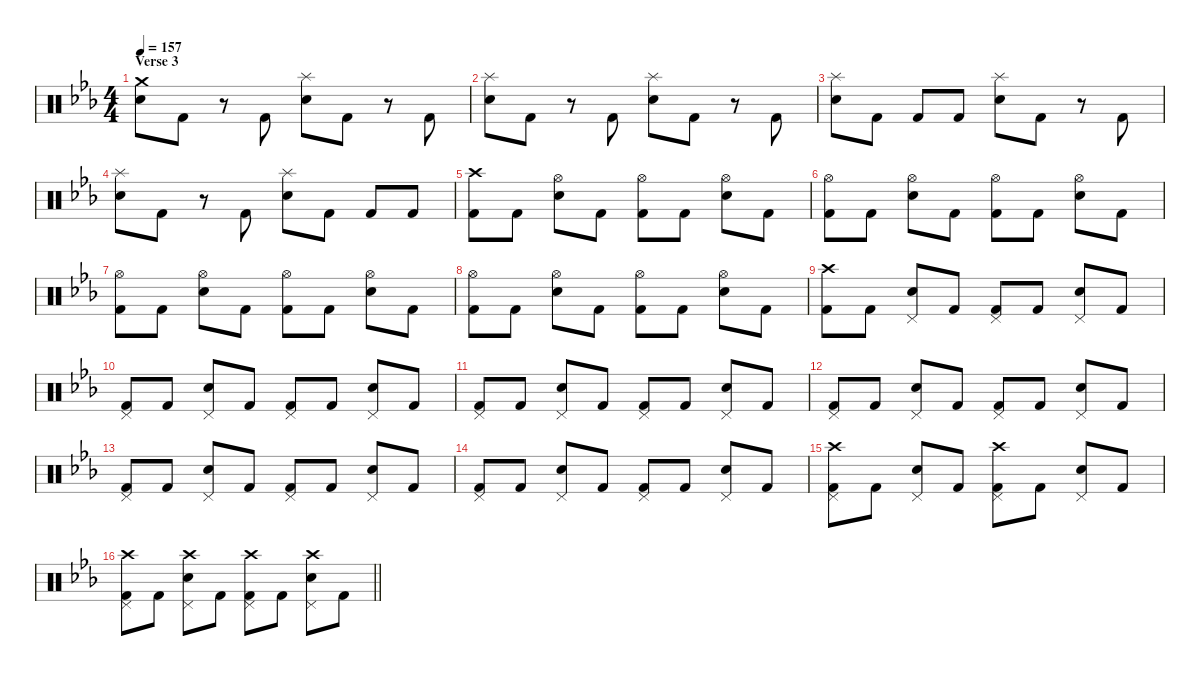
\defaultSystemsLayout 4
\hideDynamics
\bracketExtendMode nobrackets
\singleTrackTrackNamePolicy hidden
\multiTrackTrackNamePolicy hidden
\firstSystemTrackNameMode fullname
\firstSystemTrackNameOrientation horizontal
\otherSystemsTrackNameOrientation horizontal
\track ("Drums" "drm.") {instrument percussion}
\staff {score}
\articulation defaults
\ts (4 4)
\section ("" "Verse 3")
\tempo 157
\clef neutral
\ks cminor
("Crash medium (hit)"{acc forcenatural} "Snare (hit) 2"{acc forcenatural}).8{dy f beam Down} "Kick (hit) 2"{acc forcenatural}.8{beam Down} r.8{beam Down} "Kick (hit) 2"{acc forcenatural}.8{beam Up} ("Splash (hit)"{acc forcenatural} "Snare (hit) 2"{acc forcenatural}).8{dy fff beam Down} "Kick (hit) 2"{acc forcenatural}.8{dy f beam Down} r.8{beam Down} "Kick (hit) 2"{acc forcenatural}.8{beam Up} |
("Splash (hit)"{acc forcenatural} "Snare (hit) 2"{acc forcenatural}).8{dy fff beam Down} "Kick (hit) 2"{acc forcenatural}.8{dy f beam Down} r.8{beam Down} "Kick (hit) 2"{acc forcenatural}.8{beam Up} ("Splash (hit)"{acc forcenatural} "Snare (hit) 2"{acc forcenatural}).8{dy fff beam Down} "Kick (hit) 2"{acc forcenatural}.8{dy f beam Down} r.8{beam Down} "Kick (hit) 2"{acc forcenatural}.8{beam Up} |
("Splash (hit)"{acc forcenatural} "Snare (hit) 2"{acc forcenatural}).8{dy fff beam Down} "Kick (hit) 2"{acc forcenatural}.8{dy f beam Down} "Kick (hit) 2"{acc forcenatural}.8{beam Up} "Kick (hit) 2"{acc forcenatural}.8{beam Up} ("Splash (hit)"{acc forcenatural} "Snare (hit) 2"{acc forcenatural}).8{dy fff beam Down} "Kick (hit) 2"{acc forcenatural}.8{dy f beam Down} r.8{beam Down} "Kick (hit) 2"{acc forcenatural}.8{beam Up} |
("Splash (hit)"{acc forcenatural} "Snare (hit) 2"{acc forcenatural}).8{dy fff beam Down} "Kick (hit) 2"{acc forcenatural}.8{dy f beam Down} r.8{beam Down} "Kick (hit) 2"{acc forcenatural}.8{beam Up} ("Splash (hit)"{acc forcenatural} "Snare (hit) 2"{acc forcenatural}).8{dy fff beam Down} "Kick (hit) 2"{acc forcenatural}.8{dy f beam Down} "Kick (hit) 2"{acc forcenatural}.8{beam Up} "Kick (hit) 2"{acc forcenatural}.8{beam Up} |
("Crash high (hit)"{acc forcenatural} "Kick (hit) 2"{acc forcenatural}).8{beam Down} "Kick (hit) 2"{acc forcenatural}.8{beam Down} ("Hi-Hat (open)"{acc forcenatural} "Snare (hit) 2"{acc forcenatural}).8{beam Down} "Kick (hit) 2"{acc forcenatural}.8{beam Down} ("Hi-Hat (open)"{acc forcenatural} "Kick (hit) 2"{acc forcenatural}).8{beam Down} "Kick (hit) 2"{acc forcenatural}.8{beam Down} ("Hi-Hat (open)"{acc forcenatural} "Snare (hit) 2"{acc forcenatural}).8{beam Down} "Kick (hit) 2"{acc forcenatural}.8{beam Down} |
("Hi-Hat (open)"{acc forcenatural} "Kick (hit) 2"{acc forcenatural}).8{beam Down} "Kick (hit) 2"{acc forcenatural}.8{beam Down} ("Hi-Hat (open)"{acc forcenatural} "Snare (hit) 2"{acc forcenatural}).8{beam Down} "Kick (hit) 2"{acc forcenatural}.8{beam Down} ("Hi-Hat (open)"{acc forcenatural} "Kick (hit) 2"{acc forcenatural}).8{beam Down} "Kick (hit) 2"{acc forcenatural}.8{beam Down} ("Hi-Hat (open)"{acc forcenatural} "Snare (hit) 2"{acc forcenatural}).8{beam Down} "Kick (hit) 2"{acc forcenatural}.8{beam Down} |
("Hi-Hat (open)"{acc forcenatural} "Kick (hit) 2"{acc forcenatural}).8{beam Down} "Kick (hit) 2"{acc forcenatural}.8{beam Down} ("Hi-Hat (open)"{acc forcenatural} "Snare (hit) 2"{acc forcenatural}).8{beam Down} "Kick (hit) 2"{acc forcenatural}.8{beam Down} ("Hi-Hat (open)"{acc forcenatural} "Kick (hit) 2"{acc forcenatural}).8{beam Down} "Kick (hit) 2"{acc forcenatural}.8{beam Down} ("Hi-Hat (open)"{acc forcenatural} "Snare (hit) 2"{acc forcenatural}).8{beam Down} "Kick (hit) 2"{acc forcenatural}.8{beam Down} |
("Hi-Hat (open)"{acc forcenatural} "Kick (hit) 2"{acc forcenatural}).8{beam Down} "Kick (hit) 2"{acc forcenatural}.8{beam Down} ("Hi-Hat (open)"{acc forcenatural} "Snare (hit) 2"{acc forcenatural}).8{beam Down} "Kick (hit) 2"{acc forcenatural}.8{beam Down} ("Hi-Hat (open)"{acc forcenatural} "Kick (hit) 2"{acc forcenatural}).8{beam Down} "Kick (hit) 2"{acc forcenatural}.8{beam Down} ("Hi-Hat (open)"{acc forcenatural} "Snare (hit) 2"{acc forcenatural}).8{beam Down} "Kick (hit) 2"{acc forcenatural}.8{beam Down} |
("Crash high (hit)"{acc forcenatural} "Kick (hit) 2"{acc forcenatural}).8{beam Down} "Kick (hit) 2"{acc forcenatural}.8{beam Down} ("Pedal Hi-Hat (hit)"{acc forcenatural} "Snare (hit) 2"{acc forcenatural}).8{beam Up} "Kick (hit) 2"{acc forcenatural}.8{beam Up} ("Pedal Hi-Hat (hit)"{acc forcenatural} "Kick (hit) 2"{acc forcenatural}).8{beam Up} "Kick (hit) 2"{acc forcenatural}.8{beam Up} ("Pedal Hi-Hat (hit)"{acc forcenatural} "Snare (hit) 2"{acc forcenatural}).8{beam Up} "Kick (hit) 2"{acc forcenatural}.8{beam Up} |
("Pedal Hi-Hat (hit)"{acc forcenatural} "Kick (hit) 2"{acc forcenatural}).8{beam Up} "Kick (hit) 2"{acc forcenatural}.8{beam Up} ("Pedal Hi-Hat (hit)"{acc forcenatural} "Snare (hit) 2"{acc forcenatural}).8{beam Up} "Kick (hit) 2"{acc forcenatural}.8{beam Up} ("Pedal Hi-Hat (hit)"{acc forcenatural} "Kick (hit) 2"{acc forcenatural}).8{beam Up} "Kick (hit) 2"{acc forcenatural}.8{beam Up} ("Pedal Hi-Hat (hit)"{acc forcenatural} "Snare (hit) 2"{acc forcenatural}).8{beam Up} "Kick (hit) 2"{acc forcenatural}.8{beam Up} |
("Pedal Hi-Hat (hit)"{acc forcenatural} "Kick (hit) 2"{acc forcenatural}).8{beam Up} "Kick (hit) 2"{acc forcenatural}.8{beam Up} ("Pedal Hi-Hat (hit)"{acc forcenatural} "Snare (hit) 2"{acc forcenatural}).8{beam Up} "Kick (hit) 2"{acc forcenatural}.8{beam Up} ("Pedal Hi-Hat (hit)"{acc forcenatural} "Kick (hit) 2"{acc forcenatural}).8{beam Up} "Kick (hit) 2"{acc forcenatural}.8{beam Up} ("Pedal Hi-Hat (hit)"{acc forcenatural} "Snare (hit) 2"{acc forcenatural}).8{beam Up} "Kick (hit) 2"{acc forcenatural}.8{beam Up} |
("Pedal Hi-Hat (hit)"{acc forcenatural} "Kick (hit) 2"{acc forcenatural}).8{beam Up} "Kick (hit) 2"{acc forcenatural}.8{beam Up} ("Pedal Hi-Hat (hit)"{acc forcenatural} "Snare (hit) 2"{acc forcenatural}).8{beam Up} "Kick (hit) 2"{acc forcenatural}.8{beam Up} ("Pedal Hi-Hat (hit)"{acc forcenatural} "Kick (hit) 2"{acc forcenatural}).8{beam Up} "Kick (hit) 2"{acc forcenatural}.8{beam Up} ("Pedal Hi-Hat (hit)"{acc forcenatural} "Snare (hit) 2"{acc forcenatural}).8{beam Up} "Kick (hit) 2"{acc forcenatural}.8{beam Up} |
("Pedal Hi-Hat (hit)"{acc forcenatural} "Kick (hit) 2"{acc forcenatural}).8{beam Up} "Kick (hit) 2"{acc forcenatural}.8{beam Up} ("Pedal Hi-Hat (hit)"{acc forcenatural} "Snare (hit) 2"{acc forcenatural}).8{beam Up} "Kick (hit) 2"{acc forcenatural}.8{beam Up} ("Pedal Hi-Hat (hit)"{acc forcenatural} "Kick (hit) 2"{acc forcenatural}).8{beam Up} "Kick (hit) 2"{acc forcenatural}.8{beam Up} ("Pedal Hi-Hat (hit)"{acc forcenatural} "Snare (hit) 2"{acc forcenatural}).8{beam Up} "Kick (hit) 2"{acc forcenatural}.8{beam Up} |
("Pedal Hi-Hat (hit)"{acc forcenatural} "Kick (hit) 2"{acc forcenatural}).8{beam Up} "Kick (hit) 2"{acc forcenatural}.8{beam Up} ("Pedal Hi-Hat (hit)"{acc forcenatural} "Snare (hit) 2"{acc forcenatural}).8{beam Up} "Kick (hit) 2"{acc forcenatural}.8{beam Up} ("Pedal Hi-Hat (hit)"{acc forcenatural} "Kick (hit) 2"{acc forcenatural}).8{beam Up} "Kick (hit) 2"{acc forcenatural}.8{beam Up} ("Pedal Hi-Hat (hit)"{acc forcenatural} "Snare (hit) 2"{acc forcenatural}).8{beam Up} "Kick (hit) 2"{acc forcenatural}.8{beam Up} |
("Pedal Hi-Hat (hit)"{acc forcenatural} "Crash high (hit)"{acc forcenatural} "Kick (hit) 2"{acc forcenatural}).8{beam Down} "Kick (hit) 2"{acc forcenatural}.8{beam Down} ("Pedal Hi-Hat (hit)"{acc forcenatural} "Snare (hit) 2"{acc forcenatural}).8{beam Up} "Kick (hit) 2"{acc forcenatural}.8{beam Up} ("Pedal Hi-Hat (hit)"{acc forcenatural} "Crash high (hit)"{acc forcenatural} "Kick (hit) 2"{acc forcenatural}).8{beam Down} "Kick (hit) 2"{acc forcenatural}.8{beam Down} ("Pedal Hi-Hat (hit)"{acc forcenatural} "Snare (hit) 2"{acc forcenatural}).8{beam Up} "Kick (hit) 2"{acc forcenatural}.8{beam Up} |
\barLineRight lightlight
("Pedal Hi-Hat (hit)"{acc forcenatural} "Crash high (hit)"{acc forcenatural} "Kick (hit) 2"{acc forcenatural}).8{beam Down} "Kick (hit) 2"{acc forcenatural}.8{beam Down} ("Pedal Hi-Hat (hit)"{acc forcenatural} "Crash high (hit)"{acc forcenatural} "Snare (hit) 2"{acc forcenatural}).8{beam Down} "Kick (hit) 2"{acc forcenatural}.8{beam Down} ("Pedal Hi-Hat (hit)"{acc forcenatural} "Crash high (hit)"{acc forcenatural} "Kick (hit) 2"{acc forcenatural}).8{beam Down} "Kick (hit) 2"{acc forcenatural}.8{beam Down} ("Pedal Hi-Hat (hit)"{acc forcenatural} "Crash high (hit)"{acc forcenatural} "Snare (hit) 2"{acc forcenatural}).8{beam Down} "Kick (hit) 2"{acc forcenatural}.8{beam Down}
